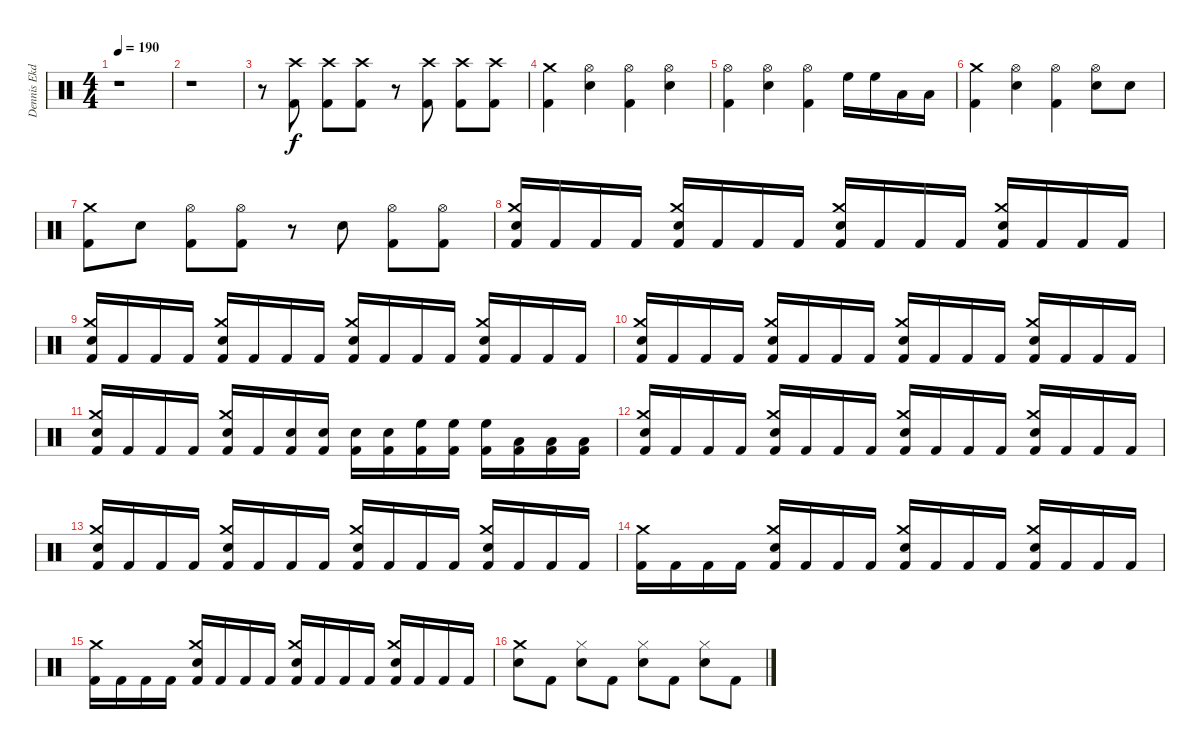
\track ("Dennis Ekdahl" "Dennis Ekd") {instrument percussion}
\staff {score}
\articulation defaults
\ts (4 4)
\tempo 190
\clef neutral
\ks c
r.1{dy f} |
r.1 |
r.8 ("Crash high (hit)" "Kick (hit) 2").8 ("Crash high (hit)" "Kick (hit) 2").8 ("Crash high (hit)" "Kick (hit) 2").8 r.8 ("Crash high (hit)" "Kick (hit) 2").8 ("Crash high (hit)" "Kick (hit) 2").8 ("Crash high (hit)" "Kick (hit) 2").8 |
("Crash medium (hit)" "Kick (hit) 2").4 ("Hi-Hat (open)" "Snare (hit) 2").4 ("Hi-Hat (open)" "Kick (hit) 2").4 ("Hi-Hat (open)" "Snare (hit) 2").4 |
("Hi-Hat (open)" "Kick (hit) 2").4 ("Hi-Hat (open)" "Snare (hit) 2").4 ("Hi-Hat (open)" "Kick (hit) 2").4 "High Floor Tom (hit)".16 "High Floor Tom (hit)".16 "Low Tom (hit)".16 "Low Tom (hit)".16 |
("Crash medium (hit)" "Kick (hit) 2").4 ("Hi-Hat (open)" "Snare (hit) 2").4 ("Hi-Hat (open)" "Kick (hit) 2").4 ("Hi-Hat (open)" "Snare (hit) 2").8 "Snare (hit) 2".8 |
("Crash medium (hit)" "Kick (hit) 2").8 "Snare (hit) 2".8 ("Hi-Hat (open)" "Kick (hit) 2").8 ("Hi-Hat (open)" "Kick (hit) 2").8 r.8 "Snare (hit) 2".8 ("Hi-Hat (open)" "Kick (hit) 2").8 ("Hi-Hat (open)" "Kick (hit) 2").8 |
("Crash medium (hit)" "Snare (hit) 2" "Kick (hit) 2").16 "Kick (hit) 2".16 "Kick (hit) 2".16 "Kick (hit) 2".16 ("Crash medium (hit)" "Snare (hit) 2" "Kick (hit) 2").16 "Kick (hit) 2".16 "Kick (hit) 2".16 "Kick (hit) 2".16 ("Crash medium (hit)" "Snare (hit) 2" "Kick (hit) 2").16 "Kick (hit) 2".16 "Kick (hit) 2".16 "Kick (hit) 2".16 ("Crash medium (hit)" "Snare (hit) 2" "Kick (hit) 2").16 "Kick (hit) 2".16 "Kick (hit) 2".16 "Kick (hit) 2".16 |
("Crash medium (hit)" "Snare (hit) 2" "Kick (hit) 2").16 "Kick (hit) 2".16 "Kick (hit) 2".16 "Kick (hit) 2".16 ("Crash medium (hit)" "Snare (hit) 2" "Kick (hit) 2").16 "Kick (hit) 2".16 "Kick (hit) 2".16 "Kick (hit) 2".16 ("Crash medium (hit)" "Snare (hit) 2" "Kick (hit) 2").16 "Kick (hit) 2".16 "Kick (hit) 2".16 "Kick (hit) 2".16 ("Crash medium (hit)" "Snare (hit) 2" "Kick (hit) 2").16 "Kick (hit) 2".16 "Kick (hit) 2".16 "Kick (hit) 2".16 |
("Crash medium (hit)" "Snare (hit) 2" "Kick (hit) 2").16 "Kick (hit) 2".16 "Kick (hit) 2".16 "Kick (hit) 2".16 ("Crash medium (hit)" "Snare (hit) 2" "Kick (hit) 2").16 "Kick (hit) 2".16 "Kick (hit) 2".16 "Kick (hit) 2".16 ("Crash medium (hit)" "Snare (hit) 2" "Kick (hit) 2").16 "Kick (hit) 2".16 "Kick (hit) 2".16 "Kick (hit) 2".16 ("Crash medium (hit)" "Snare (hit) 2" "Kick (hit) 2").16 "Kick (hit) 2".16 "Kick (hit) 2".16 "Kick (hit) 2".16 |
("Crash medium (hit)" "Snare (hit) 2" "Kick (hit) 2").16 "Kick (hit) 2".16 "Kick (hit) 2".16 "Kick (hit) 2".16 ("Crash medium (hit)" "Snare (hit) 2" "Kick (hit) 2").16 "Kick (hit) 2".16 ("Snare (hit) 2" "Kick (hit) 2").16 ("Snare (hit) 2" "Kick (hit) 2").16 ("Snare (hit) 2" "Kick (hit) 2").16 ("Snare (hit) 2" "Kick (hit) 2").16 ("High Floor Tom (hit)" "Kick (hit) 2").16 ("High Floor Tom (hit)" "Kick (hit) 2").16 ("High Floor Tom (hit)" "Kick (hit) 2").16 ("Low Tom (hit)" "Kick (hit) 2").16 ("Low Tom (hit)" "Kick (hit) 2").16 ("Low Tom (hit)" "Kick (hit) 2").16 |
("Crash medium (hit)" "Snare (hit) 2" "Kick (hit) 2").16 "Kick (hit) 2".16 "Kick (hit) 2".16 "Kick (hit) 2".16 ("Crash medium (hit)" "Snare (hit) 2" "Kick (hit) 2").16 "Kick (hit) 2".16 "Kick (hit) 2".16 "Kick (hit) 2".16 ("Crash medium (hit)" "Snare (hit) 2" "Kick (hit) 2").16 "Kick (hit) 2".16 "Kick (hit) 2".16 "Kick (hit) 2".16 ("Crash medium (hit)" "Snare (hit) 2" "Kick (hit) 2").16 "Kick (hit) 2".16 "Kick (hit) 2".16 "Kick (hit) 2".16 |
("Crash medium (hit)" "Snare (hit) 2" "Kick (hit) 2").16 "Kick (hit) 2".16 "Kick (hit) 2".16 "Kick (hit) 2".16 ("Crash medium (hit)" "Snare (hit) 2" "Kick (hit) 2").16 "Kick (hit) 2".16 "Kick (hit) 2".16 "Kick (hit) 2".16 ("Crash medium (hit)" "Snare (hit) 2" "Kick (hit) 2").16 "Kick (hit) 2".16 "Kick (hit) 2".16 "Kick (hit) 2".16 ("Crash medium (hit)" "Snare (hit) 2" "Kick (hit) 2").16 "Kick (hit) 2".16 "Kick (hit) 2".16 "Kick (hit) 2".16 |
("Crash medium (hit)" "Kick (hit) 2").16 "Kick (hit) 2".16 "Kick (hit) 2".16 "Kick (hit) 2".16 ("Crash medium (hit)" "Snare (hit) 2" "Kick (hit) 2").16 "Kick (hit) 2".16 "Kick (hit) 2".16 "Kick (hit) 2".16 ("Crash medium (hit)" "Snare (hit) 2" "Kick (hit) 2").16 "Kick (hit) 2".16 "Kick (hit) 2".16 "Kick (hit) 2".16 ("Crash medium (hit)" "Snare (hit) 2" "Kick (hit) 2").16 "Kick (hit) 2".16 "Kick (hit) 2".16 "Kick (hit) 2".16 |
("Crash medium (hit)" "Kick (hit) 2").16 "Kick (hit) 2".16 "Kick (hit) 2".16 "Kick (hit) 2".16 ("Crash medium (hit)" "Snare (hit) 2" "Kick (hit) 2").16 "Kick (hit) 2".16 "Kick (hit) 2".16 "Kick (hit) 2".16 ("Crash medium (hit)" "Snare (hit) 2" "Kick (hit) 2").16 "Kick (hit) 2".16 "Kick (hit) 2".16 "Kick (hit) 2".16 ("Crash medium (hit)" "Snare (hit) 2" "Kick (hit) 2").16 "Kick (hit) 2".16 "Kick (hit) 2".16 "Kick (hit) 2".16 |
("Crash medium (hit)" "Snare (hit) 2").8 "Kick (hit) 2".8 ("Hi-Hat (closed)" "Snare (hit) 2").8 "Kick (hit) 2".8 ("Hi-Hat (closed)" "Snare (hit) 2").8 "Kick (hit) 2".8 ("Hi-Hat (closed)" "Snare (hit) 2").8 "Kick (hit) 2".8
